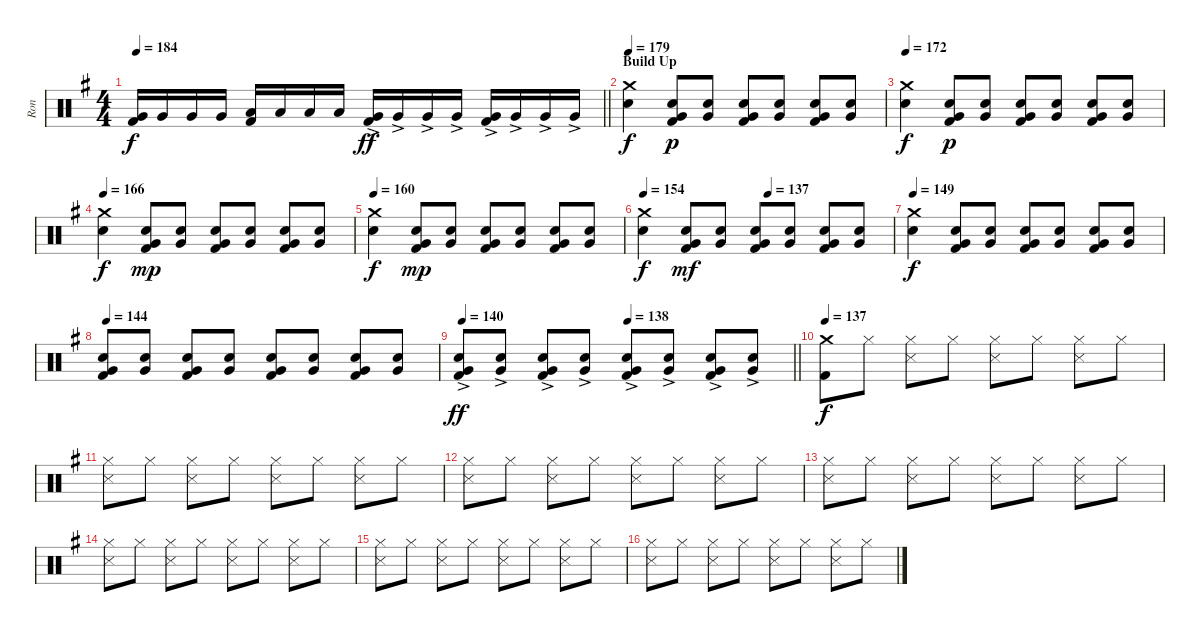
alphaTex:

\track ("Ron" "Ron") {instrument percussion}
\staff {score}
\articulation defaults
\ts (4 4)
\tempo 184
\clef neutral
\barLineRight lightlight
\ks eminor
("Very Low Tom (hit)" "Kick (hit) 2").16{dy f} "Very Low Tom (hit)".16 "Very Low Tom (hit)".16 "Very Low Tom (hit)".16 ("Low Tom (hit)" "Kick (hit) 2").16 "Low Tom (hit)".16 "Low Tom (hit)".16 "Low Tom (hit)".16 ("Very Low Tom (hit)"{ac} "Kick (hit) 2"{ac}).16{dy ff} "Very Low Tom (hit)"{ac}.16 "Very Low Tom (hit)"{ac}.16 "Very Low Tom (hit)"{ac}.16 ("Very Low Tom (hit)"{ac} "Kick (hit) 2"{ac}).16 "Very Low Tom (hit)"{ac}.16 "Very Low Tom (hit)"{ac}.16 "Very Low Tom (hit)"{ac}.16 |
\section ("" "Build Up")
\tempo 179
("Crash medium (hit)" "Electric Snare (hit)").4{dy f} ("Electric Snare (hit)" "Very Low Tom (hit)" "Kick (hit) 2").8{dy p} ("Electric Snare (hit)" "Very Low Tom (hit)").8 ("Electric Snare (hit)" "Very Low Tom (hit)" "Kick (hit) 2").8 ("Electric Snare (hit)" "Very Low Tom (hit)").8 ("Electric Snare (hit)" "Very Low Tom (hit)" "Kick (hit) 2").8 ("Electric Snare (hit)" "Very Low Tom (hit)").8 |
\tempo 153
\tempo 172
("Crash medium (hit)" "Electric Snare (hit)").4{dy f} ("Electric Snare (hit)" "Very Low Tom (hit)" "Kick (hit) 2").8{dy p} ("Electric Snare (hit)" "Very Low Tom (hit)").8 ("Electric Snare (hit)" "Very Low Tom (hit)" "Kick (hit) 2").8 ("Electric Snare (hit)" "Very Low Tom (hit)").8 ("Electric Snare (hit)" "Very Low Tom (hit)" "Kick (hit) 2").8 ("Electric Snare (hit)" "Very Low Tom (hit)").8 |
\tempo 166
("Crash medium (hit)" "Electric Snare (hit)").4{dy f} ("Electric Snare (hit)" "Very Low Tom (hit)" "Kick (hit) 2").8{dy mp} ("Electric Snare (hit)" "Very Low Tom (hit)").8 ("Electric Snare (hit)" "Very Low Tom (hit)" "Kick (hit) 2").8 ("Electric Snare (hit)" "Very Low Tom (hit)").8 ("Electric Snare (hit)" "Very Low Tom (hit)" "Kick (hit) 2").8 ("Electric Snare (hit)" "Very Low Tom (hit)").8 |
\tempo 160
("Crash medium (hit)" "Electric Snare (hit)").4{dy f} ("Electric Snare (hit)" "Very Low Tom (hit)" "Kick (hit) 2").8{dy mp} ("Electric Snare (hit)" "Very Low Tom (hit)").8 ("Electric Snare (hit)" "Very Low Tom (hit)" "Kick (hit) 2").8 ("Electric Snare (hit)" "Very Low Tom (hit)").8 ("Electric Snare (hit)" "Very Low Tom (hit)" "Kick (hit) 2").8 ("Electric Snare (hit)" "Very Low Tom (hit)").8 |
\tempo (137 0.5)
\tempo 154
("Crash medium (hit)" "Electric Snare (hit)").4{dy f} ("Electric Snare (hit)" "Very Low Tom (hit)" "Kick (hit) 2").8{dy mf} ("Electric Snare (hit)" "Very Low Tom (hit)").8 ("Electric Snare (hit)" "Very Low Tom (hit)" "Kick (hit) 2").8 ("Electric Snare (hit)" "Very Low Tom (hit)").8 ("Electric Snare (hit)" "Very Low Tom (hit)" "Kick (hit) 2").8 ("Electric Snare (hit)" "Very Low Tom (hit)").8 |
\tempo 149
("Crash medium (hit)" "Electric Snare (hit)").4{dy f} ("Electric Snare (hit)" "Very Low Tom (hit)" "Kick (hit) 2").8 ("Electric Snare (hit)" "Very Low Tom (hit)").8 ("Electric Snare (hit)" "Very Low Tom (hit)" "Kick (hit) 2").8 ("Electric Snare (hit)" "Very Low Tom (hit)").8 ("Electric Snare (hit)" "Very Low Tom (hit)" "Kick (hit) 2").8 ("Electric Snare (hit)" "Very Low Tom (hit)").8 |
\tempo 144
("Electric Snare (hit)" "Very Low Tom (hit)" "Kick (hit) 2").8 ("Electric Snare (hit)" "Very Low Tom (hit)").8 ("Electric Snare (hit)" "Very Low Tom (hit)" "Kick (hit) 2").8 ("Electric Snare (hit)" "Very Low Tom (hit)").8 ("Electric Snare (hit)" "Very Low Tom (hit)" "Kick (hit) 2").8 ("Electric Snare (hit)" "Very Low Tom (hit)").8 ("Electric Snare (hit)" "Very Low Tom (hit)" "Kick (hit) 2").8 ("Electric Snare (hit)" "Very Low Tom (hit)").8 |
\tempo 140
\tempo (138 0.5)
\barLineRight lightlight
("Electric Snare (hit)"{ac} "Very Low Tom (hit)"{ac} "Kick (hit) 2"{ac}).8{dy ff} ("Electric Snare (hit)"{ac} "Very Low Tom (hit)"{ac}).8 ("Electric Snare (hit)"{ac} "Very Low Tom (hit)"{ac} "Kick (hit) 2"{ac}).8 ("Electric Snare (hit)"{ac} "Very Low Tom (hit)"{ac}).8 ("Electric Snare (hit)"{ac} "Very Low Tom (hit)"{ac} "Kick (hit) 2"{ac}).8 ("Electric Snare (hit)"{ac} "Very Low Tom (hit)"{ac}).8 ("Electric Snare (hit)"{ac} "Very Low Tom (hit)"{ac} "Kick (hit) 2"{ac}).8 ("Electric Snare (hit)"{ac} "Very Low Tom (hit)"{ac}).8 |
\tempo 137
("Crash medium (hit)" "Kick (hit) 2").8{dy f} "Hi-Hat (closed)".8 ("Hi-Hat (closed)" "Snare (side stick) 3").8 "Hi-Hat (closed)".8 ("Hi-Hat (closed)" "Snare (side stick) 3").8 "Hi-Hat (closed)".8 ("Hi-Hat (closed)" "Snare (side stick) 3").8 "Hi-Hat (closed)".8 |
("Hi-Hat (closed)" "Snare (side stick) 3").8 "Hi-Hat (closed)".8 ("Hi-Hat (closed)" "Snare (side stick) 3").8 "Hi-Hat (closed)".8 ("Hi-Hat (closed)" "Snare (side stick) 3").8 "Hi-Hat (closed)".8 ("Hi-Hat (closed)" "Snare (side stick) 3").8 "Hi-Hat (closed)".8 |
("Hi-Hat (closed)" "Snare (side stick) 3").8 "Hi-Hat (closed)".8 ("Hi-Hat (closed)" "Snare (side stick) 3").8 "Hi-Hat (closed)".8 ("Hi-Hat (closed)" "Snare (side stick) 3").8 "Hi-Hat (closed)".8 ("Hi-Hat (closed)" "Snare (side stick) 3").8 "Hi-Hat (closed)".8 |
("Hi-Hat (closed)" "Snare (side stick) 3").8 "Hi-Hat (closed)".8 ("Hi-Hat (closed)" "Snare (side stick) 3").8 "Hi-Hat (closed)".8 ("Hi-Hat (closed)" "Snare (side stick) 3").8 "Hi-Hat (closed)".8 ("Hi-Hat (closed)" "Snare (side stick) 3").8 "Hi-Hat (closed)".8 |
("Hi-Hat (closed)" "Snare (side stick) 3").8 "Hi-Hat (closed)".8 ("Hi-Hat (closed)" "Snare (side stick) 3").8 "Hi-Hat (closed)".8 ("Hi-Hat (closed)" "Snare (side stick) 3").8 "Hi-Hat (closed)".8 ("Hi-Hat (closed)" "Snare (side stick) 3").8 "Hi-Hat (closed)".8 |
("Hi-Hat (closed)" "Snare (side stick) 3").8 "Hi-Hat (closed)".8 ("Hi-Hat (closed)" "Snare (side stick) 3").8 "Hi-Hat (closed)".8 ("Hi-Hat (closed)" "Snare (side stick) 3").8 "Hi-Hat (closed)".8 ("Hi-Hat (closed)" "Snare (side stick) 3").8 "Hi-Hat (closed)".8 |
("Hi-Hat (closed)" "Snare (side stick) 3").8 "Hi-Hat (closed)".8 ("Hi-Hat (closed)" "Snare (side stick) 3").8 "Hi-Hat (closed)".8 ("Hi-Hat (closed)" "Snare (side stick) 3").8 "Hi-Hat (closed)".8 ("Hi-Hat (closed)" "Snare (side stick) 3").8 "Hi-Hat (closed)".8
